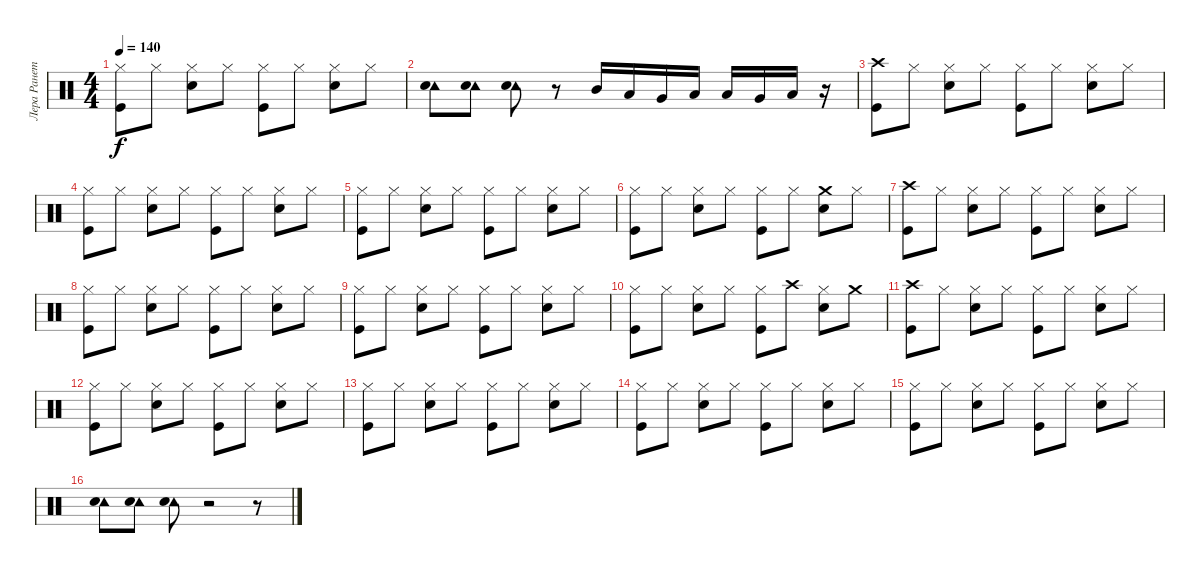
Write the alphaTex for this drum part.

\track ("Лера Ранетка" "Лера Ранет") {instrument percussion}
\staff {score}
\articulation defaults
\ts (4 4)
\tempo 140
\clef neutral
\ks c
("Hi-Hat (closed)" "Kick (hit)").8{dy f} "Hi-Hat (closed)".8 ("Hi-Hat (closed)" "Electric Snare (hit)").8 "Hi-Hat (closed)".8 ("Hi-Hat (closed)" "Kick (hit)").8 "Hi-Hat (closed)".8 ("Hi-Hat (closed)" "Electric Snare (hit)").8 "Hi-Hat (closed)".8 |
("Tambourine (hit)" "Electric Snare (hit)").8 ("Tambourine (hit)" "Electric Snare (hit)").8 ("Tambourine (hit)" "Electric Snare (hit)").8 r.8 "Mid Tom (hit)".16 "Low Tom (hit)".16 "Very Low Tom (hit)".16 "Low Floor Tom (hit)".16 "Low Tom (hit)".16 "Very Low Tom (hit)".16 "Low Floor Tom (hit)".16 r.16 |
("Crash high (hit)" "Kick (hit)").8 "Hi-Hat (closed)".8 ("Hi-Hat (closed)" "Electric Snare (hit)").8 "Hi-Hat (closed)".8 ("Hi-Hat (closed)" "Kick (hit)").8 "Hi-Hat (closed)".8 ("Hi-Hat (closed)" "Electric Snare (hit)").8 "Hi-Hat (closed)".8 |
("Hi-Hat (closed)" "Kick (hit)").8 "Hi-Hat (closed)".8 ("Hi-Hat (closed)" "Electric Snare (hit)").8 "Hi-Hat (closed)".8 ("Hi-Hat (closed)" "Kick (hit)").8 "Hi-Hat (closed)".8 ("Hi-Hat (closed)" "Electric Snare (hit)").8 "Hi-Hat (closed)".8 |
("Hi-Hat (closed)" "Kick (hit)").8 "Hi-Hat (closed)".8 ("Hi-Hat (closed)" "Electric Snare (hit)").8 "Hi-Hat (closed)".8 ("Hi-Hat (closed)" "Kick (hit)").8 "Hi-Hat (closed)".8 ("Hi-Hat (closed)" "Electric Snare (hit)").8 "Hi-Hat (closed)".8 |
("Hi-Hat (closed)" "Kick (hit)").8 "Hi-Hat (closed)".8 ("Hi-Hat (closed)" "Electric Snare (hit)").8 "Hi-Hat (closed)".8 ("Hi-Hat (closed)" "Kick (hit)").8 "Hi-Hat (closed)".8 ("Crash medium (hit)" "Electric Snare (hit)").8 "Hi-Hat (closed)".8 |
("Crash high (hit)" "Kick (hit)").8 "Hi-Hat (closed)".8 ("Hi-Hat (closed)" "Electric Snare (hit)").8 "Hi-Hat (closed)".8 ("Hi-Hat (closed)" "Kick (hit)").8 "Hi-Hat (closed)".8 ("Hi-Hat (closed)" "Electric Snare (hit)").8 "Hi-Hat (closed)".8 |
("Hi-Hat (closed)" "Kick (hit)").8 "Hi-Hat (closed)".8 ("Hi-Hat (closed)" "Electric Snare (hit)").8 "Hi-Hat (closed)".8 ("Hi-Hat (closed)" "Kick (hit)").8 "Hi-Hat (closed)".8 ("Hi-Hat (closed)" "Electric Snare (hit)").8 "Hi-Hat (closed)".8 |
("Hi-Hat (closed)" "Kick (hit)").8 "Hi-Hat (closed)".8 ("Hi-Hat (closed)" "Electric Snare (hit)").8 "Hi-Hat (closed)".8 ("Hi-Hat (closed)" "Kick (hit)").8 "Hi-Hat (closed)".8 ("Hi-Hat (closed)" "Electric Snare (hit)").8 "Hi-Hat (closed)".8 |
("Hi-Hat (closed)" "Kick (hit)").8 "Hi-Hat (closed)".8 ("Hi-Hat (closed)" "Electric Snare (hit)").8 "Hi-Hat (closed)".8 ("Hi-Hat (closed)" "Kick (hit)").8 "Crash high (hit)".8 ("Hi-Hat (closed)" "Electric Snare (hit)").8 "Crash medium (hit)".8 |
("Crash high (hit)" "Kick (hit)").8 "Hi-Hat (closed)".8 ("Hi-Hat (closed)" "Electric Snare (hit)").8 "Hi-Hat (closed)".8 ("Hi-Hat (closed)" "Kick (hit)").8 "Hi-Hat (closed)".8 ("Hi-Hat (closed)" "Electric Snare (hit)").8 "Hi-Hat (closed)".8 |
("Hi-Hat (closed)" "Kick (hit)").8 "Hi-Hat (closed)".8 ("Hi-Hat (closed)" "Electric Snare (hit)").8 "Hi-Hat (closed)".8 ("Hi-Hat (closed)" "Kick (hit)").8 "Hi-Hat (closed)".8 ("Hi-Hat (closed)" "Electric Snare (hit)").8 "Hi-Hat (closed)".8 |
("Hi-Hat (closed)" "Kick (hit)").8 "Hi-Hat (closed)".8 ("Hi-Hat (closed)" "Electric Snare (hit)").8 "Hi-Hat (closed)".8 ("Hi-Hat (closed)" "Kick (hit)").8 "Hi-Hat (closed)".8 ("Hi-Hat (closed)" "Electric Snare (hit)").8 "Hi-Hat (closed)".8 |
("Hi-Hat (closed)" "Kick (hit)").8 "Hi-Hat (closed)".8 ("Hi-Hat (closed)" "Electric Snare (hit)").8 "Hi-Hat (closed)".8 ("Hi-Hat (closed)" "Kick (hit)").8 "Hi-Hat (closed)".8 ("Hi-Hat (closed)" "Electric Snare (hit)").8 "Hi-Hat (closed)".8 |
("Hi-Hat (closed)" "Kick (hit)").8 "Hi-Hat (closed)".8 ("Hi-Hat (closed)" "Electric Snare (hit)").8 "Hi-Hat (closed)".8 ("Hi-Hat (closed)" "Kick (hit)").8 "Hi-Hat (closed)".8 ("Hi-Hat (closed)" "Electric Snare (hit)").8 "Hi-Hat (closed)".8 |
("Tambourine (hit)" "Electric Snare (hit)").8 ("Tambourine (hit)" "Electric Snare (hit)").8 ("Tambourine (hit)" "Electric Snare (hit)").8 r.2 r.8
